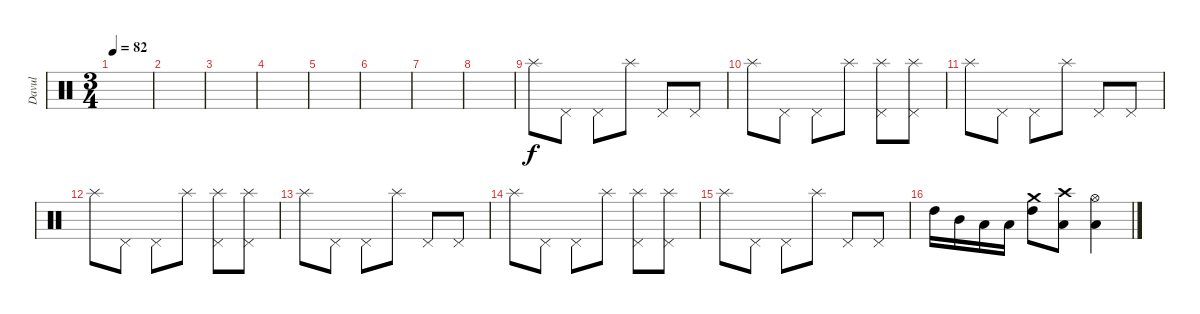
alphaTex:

\track ("Davul" "Davul") {instrument percussion}
\staff {score}
\articulation defaults
\ts (3 4)
\tempo 82
\clef neutral
\ks c
|
|
|
|
|
|
|
|
"Splash (hit)".8 "Pedal Hi-Hat (hit)".8 "Pedal Hi-Hat (hit)".8 "Splash (hit)".8 "Pedal Hi-Hat (hit)".8 "Pedal Hi-Hat (hit)".8 |
"Splash (hit)".8 "Pedal Hi-Hat (hit)".8 "Pedal Hi-Hat (hit)".8 "Splash (hit)".8 ("Splash (hit)" "Pedal Hi-Hat (hit)").8 ("Splash (hit)" "Pedal Hi-Hat (hit)").8 |
"Splash (hit)".8 "Pedal Hi-Hat (hit)".8 "Pedal Hi-Hat (hit)".8 "Splash (hit)".8 "Pedal Hi-Hat (hit)".8 "Pedal Hi-Hat (hit)".8 |
"Splash (hit)".8 "Pedal Hi-Hat (hit)".8 "Pedal Hi-Hat (hit)".8 "Splash (hit)".8 ("Splash (hit)" "Pedal Hi-Hat (hit)").8 ("Splash (hit)" "Pedal Hi-Hat (hit)").8 |
"Splash (hit)".8 "Pedal Hi-Hat (hit)".8 "Pedal Hi-Hat (hit)".8 "Splash (hit)".8 "Pedal Hi-Hat (hit)".8 "Pedal Hi-Hat (hit)".8 |
"Splash (hit)".8 "Pedal Hi-Hat (hit)".8 "Pedal Hi-Hat (hit)".8 "Splash (hit)".8 ("Splash (hit)" "Pedal Hi-Hat (hit)").8 ("Splash (hit)" "Pedal Hi-Hat (hit)").8 |
"Splash (hit)".8 "Pedal Hi-Hat (hit)".8 "Pedal Hi-Hat (hit)".8 "Splash (hit)".8 "Pedal Hi-Hat (hit)".8 "Pedal Hi-Hat (hit)".8 |
"High Tom (hit)".16 "Mid Tom (hit)".16 "Low Tom (hit)".16 "Low Floor Tom (hit)".16 ("High Tom (hit)" "Crash medium (hit)").8 ("Low Tom (hit)" "Crash high (hit)").8 ("Low Floor Tom (hit)" "Hi-Hat (open)").4
